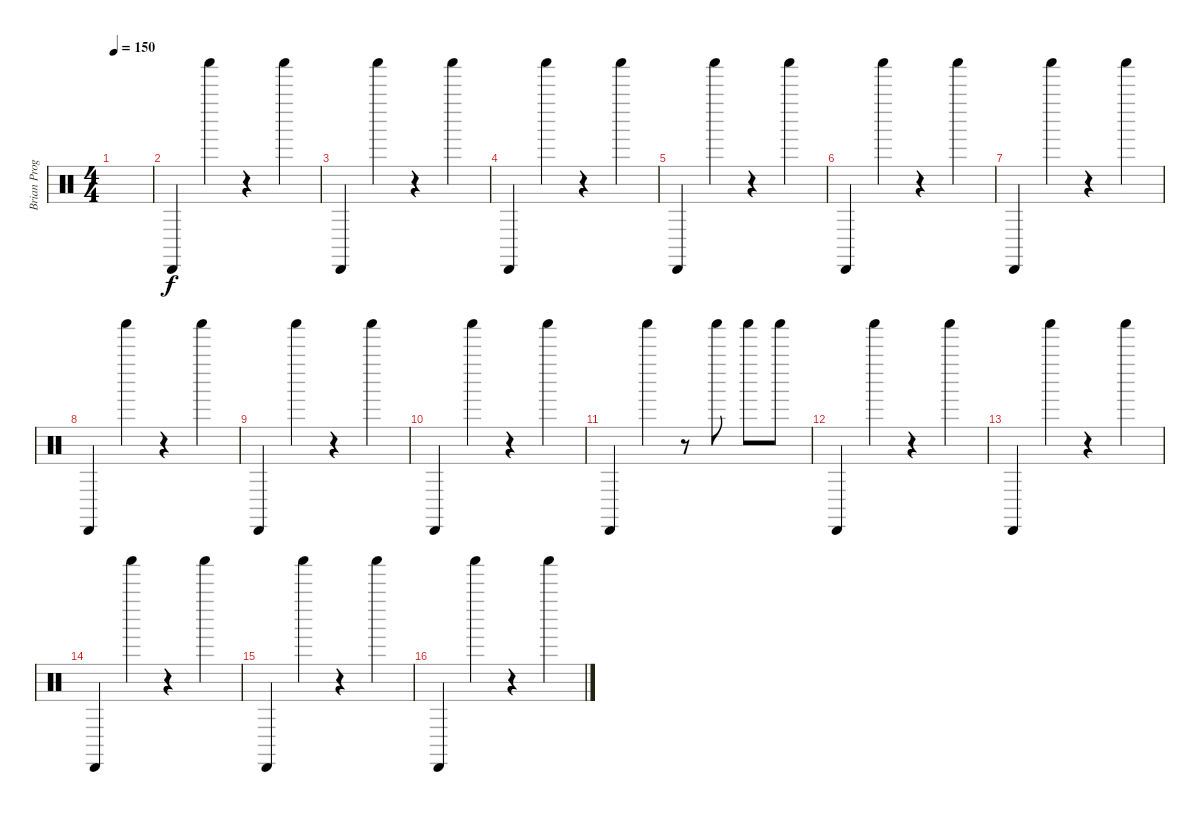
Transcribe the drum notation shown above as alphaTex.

\track ("Brian Programming" "Brian Prog") {instrument percussion}
\staff {score}
\articulation defaults
\ts (4 4)
\tempo 150
\clef neutral
\ks c
|
"Cabasa (hit)".4 "Shaker (hit)".4 r.4 "Shaker (hit)".4 |
"Cabasa (hit)".4 "Shaker (hit)".4 r.4 "Shaker (hit)".4 |
"Cabasa (hit)".4 "Shaker (hit)".4 r.4 "Shaker (hit)".4 |
"Cabasa (hit)".4 "Shaker (hit)".4 r.4 "Shaker (hit)".4 |
"Cabasa (hit)".4 "Shaker (hit)".4 r.4 "Shaker (hit)".4 |
"Cabasa (hit)".4 "Shaker (hit)".4 r.4 "Shaker (hit)".4 |
"Cabasa (hit)".4 "Shaker (hit)".4 r.4 "Shaker (hit)".4 |
"Cabasa (hit)".4 "Shaker (hit)".4 r.4 "Shaker (hit)".4 |
"Cabasa (hit)".4 "Shaker (hit)".4 r.4 "Shaker (hit)".4 |
"Cabasa (hit)".4 "Shaker (hit)".4 r.8 "Shaker (hit)".8 "Shaker (hit)".8 "Shaker (hit)".8 |
"Cabasa (hit)".4 "Shaker (hit)".4 r.4 "Shaker (hit)".4 |
"Cabasa (hit)".4 "Shaker (hit)".4 r.4 "Shaker (hit)".4 |
"Cabasa (hit)".4 "Shaker (hit)".4 r.4 "Shaker (hit)".4 |
"Cabasa (hit)".4 "Shaker (hit)".4 r.4 "Shaker (hit)".4 |
"Cabasa (hit)".4 "Shaker (hit)".4 r.4 "Shaker (hit)".4
